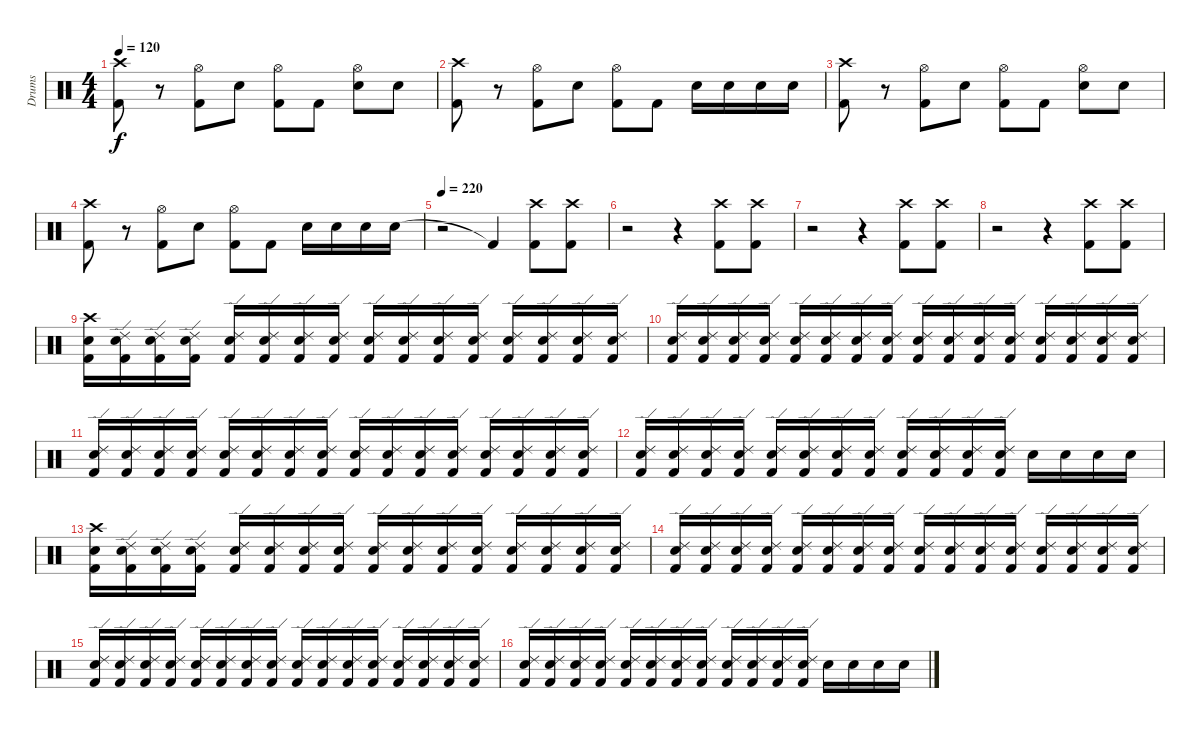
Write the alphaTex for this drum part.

\track ("Drums" "Drums") {instrument percussion}
\staff {score}
\articulation defaults
\ts (4 4)
\tempo 120
\clef neutral
\ks c
("Crash high (hit)" "Kick (hit) 2").8{dy f} r.8 ("Hi-Hat (open)" "Kick (hit) 2").8 "Electric Snare (hit)".8 ("Hi-Hat (open)" "Kick (hit) 2").8 "Kick (hit) 2".8 ("Hi-Hat (open)" "Electric Snare (hit)").8 "Electric Snare (hit)".8 |
("Crash high (hit)" "Kick (hit) 2").8 r.8 ("Hi-Hat (open)" "Kick (hit) 2").8 "Electric Snare (hit)".8 ("Hi-Hat (open)" "Kick (hit) 2").8 "Kick (hit) 2".8 "Electric Snare (hit)".16 "Electric Snare (hit)".16 "Electric Snare (hit)".16 "Electric Snare (hit)".16 |
("Crash high (hit)" "Kick (hit) 2").8 r.8 ("Hi-Hat (open)" "Kick (hit) 2").8 "Electric Snare (hit)".8 ("Hi-Hat (open)" "Kick (hit) 2").8 "Kick (hit) 2".8 ("Hi-Hat (open)" "Electric Snare (hit)").8 "Electric Snare (hit)".8 |
("Crash high (hit)" "Kick (hit) 2").8 r.8 ("Hi-Hat (open)" "Kick (hit) 2").8 "Electric Snare (hit)".8 ("Hi-Hat (open)" "Kick (hit) 2").8 "Kick (hit) 2".8 "Electric Snare (hit)".16 "Electric Snare (hit)".16 "Electric Snare (hit)".16 "Electric Snare (hit)".16 |
\tempo 220
r.2 "Kick (hit) 2"{t}.4 ("Crash high (hit)" "Kick (hit) 2").8 ("Crash high (hit)" "Kick (hit) 2").8 |
r.2 r.4 ("Crash high (hit)" "Kick (hit) 2").8 ("Crash high (hit)" "Kick (hit) 2").8 |
r.2 r.4 ("Crash high (hit)" "Kick (hit) 2").8 ("Crash high (hit)" "Kick (hit) 2").8 |
r.2 r.4 ("Crash high (hit)" "Kick (hit) 2").8 ("Crash high (hit)" "Kick (hit) 2").8 |
("Crash high (hit)" "Electric Snare (hit)" "Kick (hit) 2").16 ("Ride (edge) 2" "Electric Snare (hit)" "Kick (hit) 2").16 ("Ride (edge) 2" "Electric Snare (hit)" "Kick (hit) 2").16 ("Ride (edge) 2" "Electric Snare (hit)" "Kick (hit) 2").16 ("Ride (edge) 2" "Electric Snare (hit)" "Kick (hit) 2").16 ("Ride (edge) 2" "Electric Snare (hit)" "Kick (hit) 2").16 ("Ride (edge) 2" "Electric Snare (hit)" "Kick (hit) 2").16 ("Ride (edge) 2" "Electric Snare (hit)" "Kick (hit) 2").16 ("Ride (edge) 2" "Electric Snare (hit)" "Kick (hit) 2").16 ("Ride (edge) 2" "Electric Snare (hit)" "Kick (hit) 2").16 ("Ride (edge) 2" "Electric Snare (hit)" "Kick (hit) 2").16 ("Ride (edge) 2" "Electric Snare (hit)" "Kick (hit) 2").16 ("Ride (edge) 2" "Electric Snare (hit)" "Kick (hit) 2").16 ("Ride (edge) 2" "Electric Snare (hit)" "Kick (hit) 2").16 ("Ride (edge) 2" "Electric Snare (hit)" "Kick (hit) 2").16 ("Ride (edge) 2" "Electric Snare (hit)" "Kick (hit) 2").16 |
("Ride (edge) 2" "Electric Snare (hit)" "Kick (hit) 2").16 ("Ride (edge) 2" "Electric Snare (hit)" "Kick (hit) 2").16 ("Ride (edge) 2" "Electric Snare (hit)" "Kick (hit) 2").16 ("Ride (edge) 2" "Electric Snare (hit)" "Kick (hit) 2").16 ("Ride (edge) 2" "Electric Snare (hit)" "Kick (hit) 2").16 ("Ride (edge) 2" "Electric Snare (hit)" "Kick (hit) 2").16 ("Ride (edge) 2" "Electric Snare (hit)" "Kick (hit) 2").16 ("Ride (edge) 2" "Electric Snare (hit)" "Kick (hit) 2").16 ("Ride (edge) 2" "Electric Snare (hit)" "Kick (hit) 2").16 ("Ride (edge) 2" "Electric Snare (hit)" "Kick (hit) 2").16 ("Ride (edge) 2" "Electric Snare (hit)" "Kick (hit) 2").16 ("Ride (edge) 2" "Electric Snare (hit)" "Kick (hit) 2").16 ("Ride (edge) 2" "Electric Snare (hit)" "Kick (hit) 2").16 ("Ride (edge) 2" "Electric Snare (hit)" "Kick (hit) 2").16 ("Ride (edge) 2" "Electric Snare (hit)" "Kick (hit) 2").16 ("Ride (edge) 2" "Electric Snare (hit)" "Kick (hit) 2").16 |
("Ride (edge) 2" "Electric Snare (hit)" "Kick (hit) 2").16 ("Ride (edge) 2" "Electric Snare (hit)" "Kick (hit) 2").16 ("Ride (edge) 2" "Electric Snare (hit)" "Kick (hit) 2").16 ("Ride (edge) 2" "Electric Snare (hit)" "Kick (hit) 2").16 ("Ride (edge) 2" "Electric Snare (hit)" "Kick (hit) 2").16 ("Ride (edge) 2" "Electric Snare (hit)" "Kick (hit) 2").16 ("Ride (edge) 2" "Electric Snare (hit)" "Kick (hit) 2").16 ("Ride (edge) 2" "Electric Snare (hit)" "Kick (hit) 2").16 ("Ride (edge) 2" "Electric Snare (hit)" "Kick (hit) 2").16 ("Ride (edge) 2" "Electric Snare (hit)" "Kick (hit) 2").16 ("Ride (edge) 2" "Electric Snare (hit)" "Kick (hit) 2").16 ("Ride (edge) 2" "Electric Snare (hit)" "Kick (hit) 2").16 ("Ride (edge) 2" "Electric Snare (hit)" "Kick (hit) 2").16 ("Ride (edge) 2" "Electric Snare (hit)" "Kick (hit) 2").16 ("Ride (edge) 2" "Electric Snare (hit)" "Kick (hit) 2").16 ("Ride (edge) 2" "Electric Snare (hit)" "Kick (hit) 2").16 |
("Ride (edge) 2" "Electric Snare (hit)" "Kick (hit) 2").16 ("Ride (edge) 2" "Electric Snare (hit)" "Kick (hit) 2").16 ("Ride (edge) 2" "Electric Snare (hit)" "Kick (hit) 2").16 ("Ride (edge) 2" "Electric Snare (hit)" "Kick (hit) 2").16 ("Ride (edge) 2" "Electric Snare (hit)" "Kick (hit) 2").16 ("Ride (edge) 2" "Electric Snare (hit)" "Kick (hit) 2").16 ("Ride (edge) 2" "Electric Snare (hit)" "Kick (hit) 2").16 ("Ride (edge) 2" "Electric Snare (hit)" "Kick (hit) 2").16 ("Ride (edge) 2" "Electric Snare (hit)" "Kick (hit) 2").16 ("Ride (edge) 2" "Electric Snare (hit)" "Kick (hit) 2").16 ("Ride (edge) 2" "Electric Snare (hit)" "Kick (hit) 2").16 ("Ride (edge) 2" "Electric Snare (hit)" "Kick (hit) 2").16 "Electric Snare (hit)".16 "Electric Snare (hit)".16 "Electric Snare (hit)".16 "Electric Snare (hit)".16 |
("Crash high (hit)" "Electric Snare (hit)" "Kick (hit) 2").16 ("Ride (edge) 2" "Electric Snare (hit)" "Kick (hit) 2").16 ("Ride (edge) 2" "Electric Snare (hit)" "Kick (hit) 2").16 ("Ride (edge) 2" "Electric Snare (hit)" "Kick (hit) 2").16 ("Ride (edge) 2" "Electric Snare (hit)" "Kick (hit) 2").16 ("Ride (edge) 2" "Electric Snare (hit)" "Kick (hit) 2").16 ("Ride (edge) 2" "Electric Snare (hit)" "Kick (hit) 2").16 ("Ride (edge) 2" "Electric Snare (hit)" "Kick (hit) 2").16 ("Ride (edge) 2" "Electric Snare (hit)" "Kick (hit) 2").16 ("Ride (edge) 2" "Electric Snare (hit)" "Kick (hit) 2").16 ("Ride (edge) 2" "Electric Snare (hit)" "Kick (hit) 2").16 ("Ride (edge) 2" "Electric Snare (hit)" "Kick (hit) 2").16 ("Ride (edge) 2" "Electric Snare (hit)" "Kick (hit) 2").16 ("Ride (edge) 2" "Electric Snare (hit)" "Kick (hit) 2").16 ("Ride (edge) 2" "Electric Snare (hit)" "Kick (hit) 2").16 ("Ride (edge) 2" "Electric Snare (hit)" "Kick (hit) 2").16 |
("Ride (edge) 2" "Electric Snare (hit)" "Kick (hit) 2").16 ("Ride (edge) 2" "Electric Snare (hit)" "Kick (hit) 2").16 ("Ride (edge) 2" "Electric Snare (hit)" "Kick (hit) 2").16 ("Ride (edge) 2" "Electric Snare (hit)" "Kick (hit) 2").16 ("Ride (edge) 2" "Electric Snare (hit)" "Kick (hit) 2").16 ("Ride (edge) 2" "Electric Snare (hit)" "Kick (hit) 2").16 ("Ride (edge) 2" "Electric Snare (hit)" "Kick (hit) 2").16 ("Ride (edge) 2" "Electric Snare (hit)" "Kick (hit) 2").16 ("Ride (edge) 2" "Electric Snare (hit)" "Kick (hit) 2").16 ("Ride (edge) 2" "Electric Snare (hit)" "Kick (hit) 2").16 ("Ride (edge) 2" "Electric Snare (hit)" "Kick (hit) 2").16 ("Ride (edge) 2" "Electric Snare (hit)" "Kick (hit) 2").16 ("Ride (edge) 2" "Electric Snare (hit)" "Kick (hit) 2").16 ("Ride (edge) 2" "Electric Snare (hit)" "Kick (hit) 2").16 ("Ride (edge) 2" "Electric Snare (hit)" "Kick (hit) 2").16 ("Ride (edge) 2" "Electric Snare (hit)" "Kick (hit) 2").16 |
("Ride (edge) 2" "Electric Snare (hit)" "Kick (hit) 2").16 ("Ride (edge) 2" "Electric Snare (hit)" "Kick (hit) 2").16 ("Ride (edge) 2" "Electric Snare (hit)" "Kick (hit) 2").16 ("Ride (edge) 2" "Electric Snare (hit)" "Kick (hit) 2").16 ("Ride (edge) 2" "Electric Snare (hit)" "Kick (hit) 2").16 ("Ride (edge) 2" "Electric Snare (hit)" "Kick (hit) 2").16 ("Ride (edge) 2" "Electric Snare (hit)" "Kick (hit) 2").16 ("Ride (edge) 2" "Electric Snare (hit)" "Kick (hit) 2").16 ("Ride (edge) 2" "Electric Snare (hit)" "Kick (hit) 2").16 ("Ride (edge) 2" "Electric Snare (hit)" "Kick (hit) 2").16 ("Ride (edge) 2" "Electric Snare (hit)" "Kick (hit) 2").16 ("Ride (edge) 2" "Electric Snare (hit)" "Kick (hit) 2").16 ("Ride (edge) 2" "Electric Snare (hit)" "Kick (hit) 2").16 ("Ride (edge) 2" "Electric Snare (hit)" "Kick (hit) 2").16 ("Ride (edge) 2" "Electric Snare (hit)" "Kick (hit) 2").16 ("Ride (edge) 2" "Electric Snare (hit)" "Kick (hit) 2").16 |
("Ride (edge) 2" "Electric Snare (hit)" "Kick (hit) 2").16 ("Ride (edge) 2" "Electric Snare (hit)" "Kick (hit) 2").16 ("Ride (edge) 2" "Electric Snare (hit)" "Kick (hit) 2").16 ("Ride (edge) 2" "Electric Snare (hit)" "Kick (hit) 2").16 ("Ride (edge) 2" "Electric Snare (hit)" "Kick (hit) 2").16 ("Ride (edge) 2" "Electric Snare (hit)" "Kick (hit) 2").16 ("Ride (edge) 2" "Electric Snare (hit)" "Kick (hit) 2").16 ("Ride (edge) 2" "Electric Snare (hit)" "Kick (hit) 2").16 ("Ride (edge) 2" "Electric Snare (hit)" "Kick (hit) 2").16 ("Ride (edge) 2" "Electric Snare (hit)" "Kick (hit) 2").16 ("Ride (edge) 2" "Electric Snare (hit)" "Kick (hit) 2").16 ("Ride (edge) 2" "Electric Snare (hit)" "Kick (hit) 2").16 "Electric Snare (hit)".16 "Electric Snare (hit)".16 "Electric Snare (hit)".16 "Electric Snare (hit)".16
